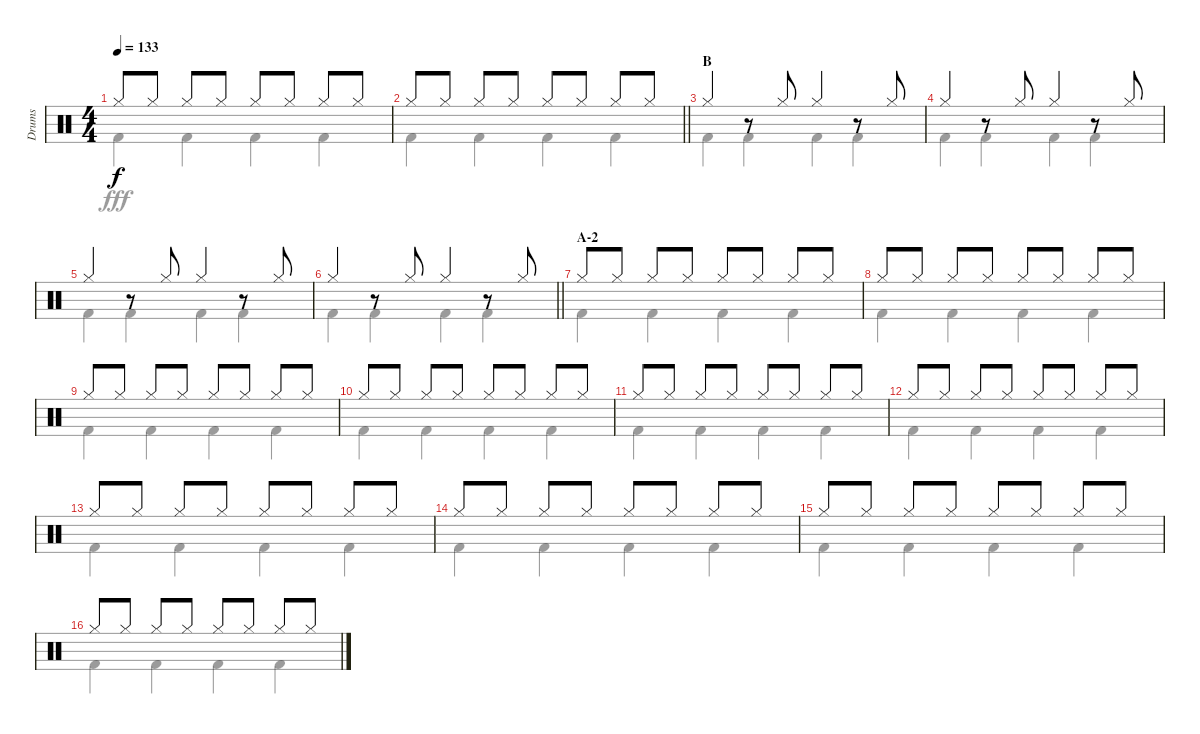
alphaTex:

\track ("Drums" "Drums") {instrument percussion}
\staff {score}
\articulation defaults
\voice
\ts (4 4)
\tempo 133
\clef neutral
\ks c "Hi-Hat (closed)".8{dy f} "Hi-Hat (closed)".8 "Hi-Hat (closed)".8 "Hi-Hat (closed)".8 "Hi-Hat (closed)".8 "Hi-Hat (closed)".8 "Hi-Hat (closed)".8 "Hi-Hat (closed)".8
|
\barLineRight lightlight "Hi-Hat (closed)".8 "Hi-Hat (closed)".8 "Hi-Hat (closed)".8 "Hi-Hat (closed)".8 "Hi-Hat (closed)".8 "Hi-Hat (closed)".8 "Hi-Hat (closed)".8 "Hi-Hat (closed)".8
|
\section ("" "B")
"Hi-Hat (closed)".4 r.8 "Hi-Hat (closed)".8 "Hi-Hat (closed)".4 r.8 "Hi-Hat (closed)".8 |
"Hi-Hat (closed)".4 r.8 "Hi-Hat (closed)".8 "Hi-Hat (closed)".4 r.8 "Hi-Hat (closed)".8 |
"Hi-Hat (closed)".4 r.8 "Hi-Hat (closed)".8 "Hi-Hat (closed)".4 r.8 "Hi-Hat (closed)".8 |
\barLineRight lightlight "Hi-Hat (closed)".4
r.8 "Hi-Hat (closed)".8 "Hi-Hat (closed)".4 r.8 "Hi-Hat (closed)".8 |
\section ("" "A-2")
"Hi-Hat (closed)".8 "Hi-Hat (closed)".8 "Hi-Hat (closed)".8 "Hi-Hat (closed)".8 "Hi-Hat (closed)".8 "Hi-Hat (closed)".8 "Hi-Hat (closed)".8 "Hi-Hat (closed)".8 |
"Hi-Hat (closed)".8 "Hi-Hat (closed)".8 "Hi-Hat (closed)".8 "Hi-Hat (closed)".8 "Hi-Hat (closed)".8 "Hi-Hat (closed)".8 "Hi-Hat (closed)".8 "Hi-Hat (closed)".8 |
"Hi-Hat (closed)".8 "Hi-Hat (closed)".8 "Hi-Hat (closed)".8 "Hi-Hat (closed)".8 "Hi-Hat (closed)".8 "Hi-Hat (closed)".8 "Hi-Hat (closed)".8 "Hi-Hat (closed)".8 |
"Hi-Hat (closed)".8 "Hi-Hat (closed)".8 "Hi-Hat (closed)".8 "Hi-Hat (closed)".8 "Hi-Hat (closed)".8 "Hi-Hat (closed)".8 "Hi-Hat (closed)".8 "Hi-Hat (closed)".8 |
"Hi-Hat (closed)".8 "Hi-Hat (closed)".8 "Hi-Hat (closed)".8 "Hi-Hat (closed)".8 "Hi-Hat (closed)".8 "Hi-Hat (closed)".8 "Hi-Hat (closed)".8 "Hi-Hat (closed)".8 |
"Hi-Hat (closed)".8 "Hi-Hat (closed)".8 "Hi-Hat (closed)".8 "Hi-Hat (closed)".8 "Hi-Hat (closed)".8 "Hi-Hat (closed)".8 "Hi-Hat (closed)".8 "Hi-Hat (closed)".8 |
"Hi-Hat (closed)".8 "Hi-Hat (closed)".8 "Hi-Hat (closed)".8 "Hi-Hat (closed)".8 "Hi-Hat (closed)".8 "Hi-Hat (closed)".8 "Hi-Hat (closed)".8 "Hi-Hat (closed)".8 |
"Hi-Hat (closed)".8 "Hi-Hat (closed)".8 "Hi-Hat (closed)".8 "Hi-Hat (closed)".8 "Hi-Hat (closed)".8 "Hi-Hat (closed)".8 "Hi-Hat (closed)".8 "Hi-Hat (closed)".8 |
"Hi-Hat (closed)".8 "Hi-Hat (closed)".8 "Hi-Hat (closed)".8 "Hi-Hat (closed)".8 "Hi-Hat (closed)".8 "Hi-Hat (closed)".8 "Hi-Hat (closed)".8 "Hi-Hat (closed)".8 |
"Hi-Hat (closed)".8 "Hi-Hat (closed)".8 "Hi-Hat (closed)".8 "Hi-Hat (closed)".8 "Hi-Hat (closed)".8 "Hi-Hat (closed)".8 "Hi-Hat (closed)".8 "Hi-Hat (closed)".8
\voice
\clef neutral
\ottava regular
\simile none
\ks c "Kick (hit) 2".4{dy fff} "Kick (hit) 2".4 "Kick (hit) 2".4 "Kick (hit) 2".4
|
\barLineRight lightlight "Kick (hit) 2".4 "Kick (hit) 2".4 "Kick (hit) 2".4 "Kick (hit) 2".4
|
"Kick (hit) 2".4 "Kick (hit) 2".4 "Kick (hit) 2".4 "Kick (hit) 2".4 |
"Kick (hit) 2".4 "Kick (hit) 2".4 "Kick (hit) 2".4 "Kick (hit) 2".4 |
"Kick (hit) 2".4 "Kick (hit) 2".4 "Kick (hit) 2".4 "Kick (hit) 2".4 |
\barLineRight lightlight "Kick (hit) 2".4 "Kick (hit) 2".4 "Kick (hit) 2".4 "Kick (hit) 2".4
|
"Kick (hit) 2".4 "Kick (hit) 2".4 "Kick (hit) 2".4 "Kick (hit) 2".4 |
"Kick (hit) 2".4 "Kick (hit) 2".4 "Kick (hit) 2".4 "Kick (hit) 2".4 |
"Kick (hit) 2".4 "Kick (hit) 2".4 "Kick (hit) 2".4 "Kick (hit) 2".4 |
"Kick (hit) 2".4 "Kick (hit) 2".4 "Kick (hit) 2".4 "Kick (hit) 2".4 |
"Kick (hit) 2".4 "Kick (hit) 2".4 "Kick (hit) 2".4 "Kick (hit) 2".4 |
"Kick (hit) 2".4 "Kick (hit) 2".4 "Kick (hit) 2".4 "Kick (hit) 2".4 |
"Kick (hit) 2".4 "Kick (hit) 2".4 "Kick (hit) 2".4 "Kick (hit) 2".4 |
"Kick (hit) 2".4 "Kick (hit) 2".4 "Kick (hit) 2".4 "Kick (hit) 2".4 |
"Kick (hit) 2".4 "Kick (hit) 2".4 "Kick (hit) 2".4 "Kick (hit) 2".4 |
"Kick (hit) 2".4 "Kick (hit) 2".4 "Kick (hit) 2".4 "Kick (hit) 2".4
